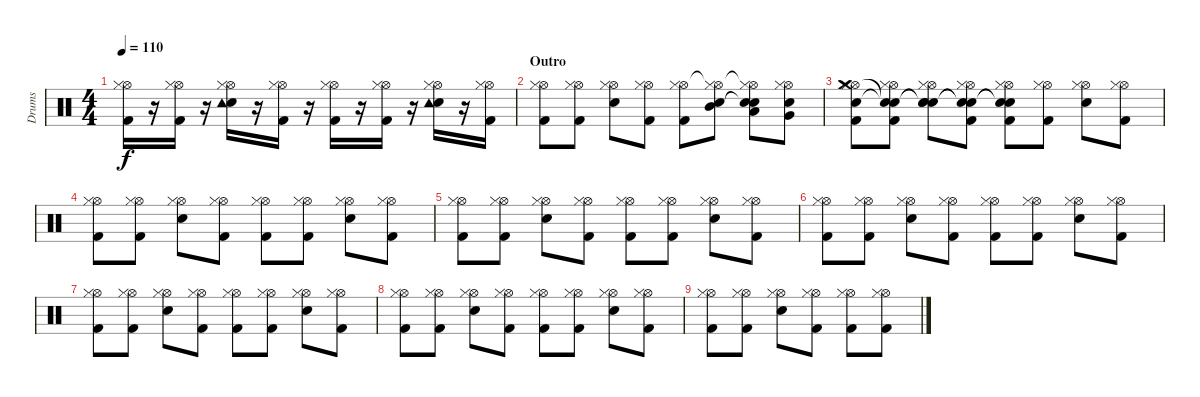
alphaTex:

\track ("Drums" "Drums") {instrument percussion}
\staff {score}
\articulation defaults
\ts (4 4)
\tempo 110
\clef neutral
\ks c
("Hi-Hat (open)" "Hi-Hat (closed)" "Kick (hit) 2").16{dy f} r.16 ("Hi-Hat (open)" "Hi-Hat (closed)" "Kick (hit) 2").16 r.16 ("Hi-Hat (open)" "Hi-Hat (closed)" "Snare (hit) 2" "Tambourine (hit)").16 r.16 ("Hi-Hat (open)" "Hi-Hat (closed)" "Kick (hit) 2").16 r.16 ("Hi-Hat (open)" "Hi-Hat (closed)" "Kick (hit) 2").16 r.16 ("Hi-Hat (open)" "Hi-Hat (closed)" "Kick (hit) 2").16 r.16 ("Hi-Hat (open)" "Hi-Hat (closed)" "Snare (hit) 2" "Tambourine (hit)").16 r.16 ("Hi-Hat (open)" "Hi-Hat (closed)" "Kick (hit) 2").16 |
\section ("" "Outro")
("Hi-Hat (open)" "Hi-Hat (closed)" "Kick (hit) 2").8 ("Hi-Hat (open)" "Hi-Hat (closed)" "Kick (hit) 2").8 ("Hi-Hat (open)" "Hi-Hat (closed)" "Snare (hit) 2").8 ("Hi-Hat (open)" "Hi-Hat (closed)" "Kick (hit) 2").8 ("Hi-Hat (open)" "Hi-Hat (closed)" "Kick (hit) 2").8 ("Hi-Hat (open)"{t} "Hi-Hat (closed)" "Snare (hit) 2" "Mid Tom (hit)").8 ("Hi-Hat (open)"{t} "Hi-Hat (closed)" "Snare (hit) 2" "Snare (hit)"{t} "Low Tom (hit)").8 ("Hi-Hat (open)" "Hi-Hat (closed)" "Snare (hit) 2" "Very Low Tom (hit)").8 |
("Hi-Hat (open)" "Hi-Hat (closed)" "Electric Snare (hit)" "Kick (hit) 2" "Crash medium (hit)").8 ("Hi-Hat (open)" "Hi-Hat (closed)" "Snare (hit)"{t} "Kick (hit) 2" "Snare (hit)"{t}).8 ("Hi-Hat (open)" "Hi-Hat (closed)" "Snare (hit)"{t} "Snare (hit) 2" "Snare (hit)"{t}).8 ("Hi-Hat (open)" "Hi-Hat (closed)" "Snare (hit)"{t} "Kick (hit) 2" "Snare (hit)"{t}).8 ("Hi-Hat (open)" "Hi-Hat (closed)" "Snare (hit)"{t} "Kick (hit) 2" "Snare (hit)"{t}).8 ("Hi-Hat (open)" "Hi-Hat (closed)" "Kick (hit) 2").8 ("Hi-Hat (open)" "Hi-Hat (closed)" "Snare (hit) 2").8 ("Hi-Hat (open)" "Hi-Hat (closed)" "Kick (hit) 2").8 |
("Hi-Hat (open)" "Hi-Hat (closed)" "Kick (hit) 2").8 ("Hi-Hat (open)" "Hi-Hat (closed)" "Kick (hit) 2").8 ("Hi-Hat (open)" "Hi-Hat (closed)" "Snare (hit) 2").8 ("Hi-Hat (open)" "Hi-Hat (closed)" "Kick (hit) 2").8 ("Hi-Hat (open)" "Hi-Hat (closed)" "Kick (hit) 2").8 ("Hi-Hat (open)" "Hi-Hat (closed)" "Kick (hit) 2").8 ("Hi-Hat (open)" "Hi-Hat (closed)" "Snare (hit) 2").8 ("Hi-Hat (open)" "Hi-Hat (closed)" "Kick (hit) 2").8 |
("Hi-Hat (open)" "Hi-Hat (closed)" "Kick (hit) 2").8 ("Hi-Hat (open)" "Hi-Hat (closed)" "Kick (hit) 2").8 ("Hi-Hat (open)" "Hi-Hat (closed)" "Snare (hit) 2").8 ("Hi-Hat (open)" "Hi-Hat (closed)" "Kick (hit) 2").8 ("Hi-Hat (open)" "Hi-Hat (closed)" "Kick (hit) 2").8 ("Hi-Hat (open)" "Hi-Hat (closed)" "Kick (hit) 2").8 ("Hi-Hat (open)" "Hi-Hat (closed)" "Snare (hit) 2").8 ("Hi-Hat (open)" "Hi-Hat (closed)" "Kick (hit) 2").8 |
("Hi-Hat (open)" "Hi-Hat (closed)" "Kick (hit) 2").8 ("Hi-Hat (open)" "Hi-Hat (closed)" "Kick (hit) 2").8 ("Hi-Hat (open)" "Hi-Hat (closed)" "Snare (hit) 2").8 ("Hi-Hat (open)" "Hi-Hat (closed)" "Kick (hit) 2").8 ("Hi-Hat (open)" "Hi-Hat (closed)" "Kick (hit) 2").8 ("Hi-Hat (open)" "Hi-Hat (closed)" "Kick (hit) 2").8 ("Hi-Hat (open)" "Hi-Hat (closed)" "Snare (hit) 2").8 ("Hi-Hat (open)" "Hi-Hat (closed)" "Kick (hit) 2").8 |
("Hi-Hat (open)" "Hi-Hat (closed)" "Kick (hit) 2").8 ("Hi-Hat (open)" "Hi-Hat (closed)" "Kick (hit) 2").8 ("Hi-Hat (open)" "Hi-Hat (closed)" "Snare (hit) 2").8 ("Hi-Hat (open)" "Hi-Hat (closed)" "Kick (hit) 2").8 ("Hi-Hat (open)" "Hi-Hat (closed)" "Kick (hit) 2").8 ("Hi-Hat (open)" "Hi-Hat (closed)" "Kick (hit) 2").8 ("Hi-Hat (open)" "Hi-Hat (closed)" "Snare (hit) 2").8 ("Hi-Hat (open)" "Hi-Hat (closed)" "Kick (hit) 2").8 |
("Hi-Hat (open)" "Hi-Hat (closed)" "Kick (hit) 2").8 ("Hi-Hat (open)" "Hi-Hat (closed)" "Kick (hit) 2").8 ("Hi-Hat (open)" "Hi-Hat (closed)" "Snare (hit) 2").8 ("Hi-Hat (open)" "Hi-Hat (closed)" "Kick (hit) 2").8 ("Hi-Hat (open)" "Hi-Hat (closed)" "Kick (hit) 2").8 ("Hi-Hat (open)" "Hi-Hat (closed)" "Kick (hit) 2").8 ("Hi-Hat (open)" "Hi-Hat (closed)" "Snare (hit) 2").8 ("Hi-Hat (open)" "Hi-Hat (closed)" "Kick (hit) 2").8 |
("Hi-Hat (open)" "Hi-Hat (closed)" "Kick (hit) 2").8 ("Hi-Hat (open)" "Hi-Hat (closed)" "Kick (hit) 2").8 ("Hi-Hat (open)" "Hi-Hat (closed)" "Snare (hit) 2").8 ("Hi-Hat (open)" "Hi-Hat (closed)" "Kick (hit) 2").8 ("Hi-Hat (open)" "Hi-Hat (closed)" "Kick (hit) 2").8 ("Hi-Hat (open)" "Hi-Hat (closed)" "Kick (hit) 2").8
